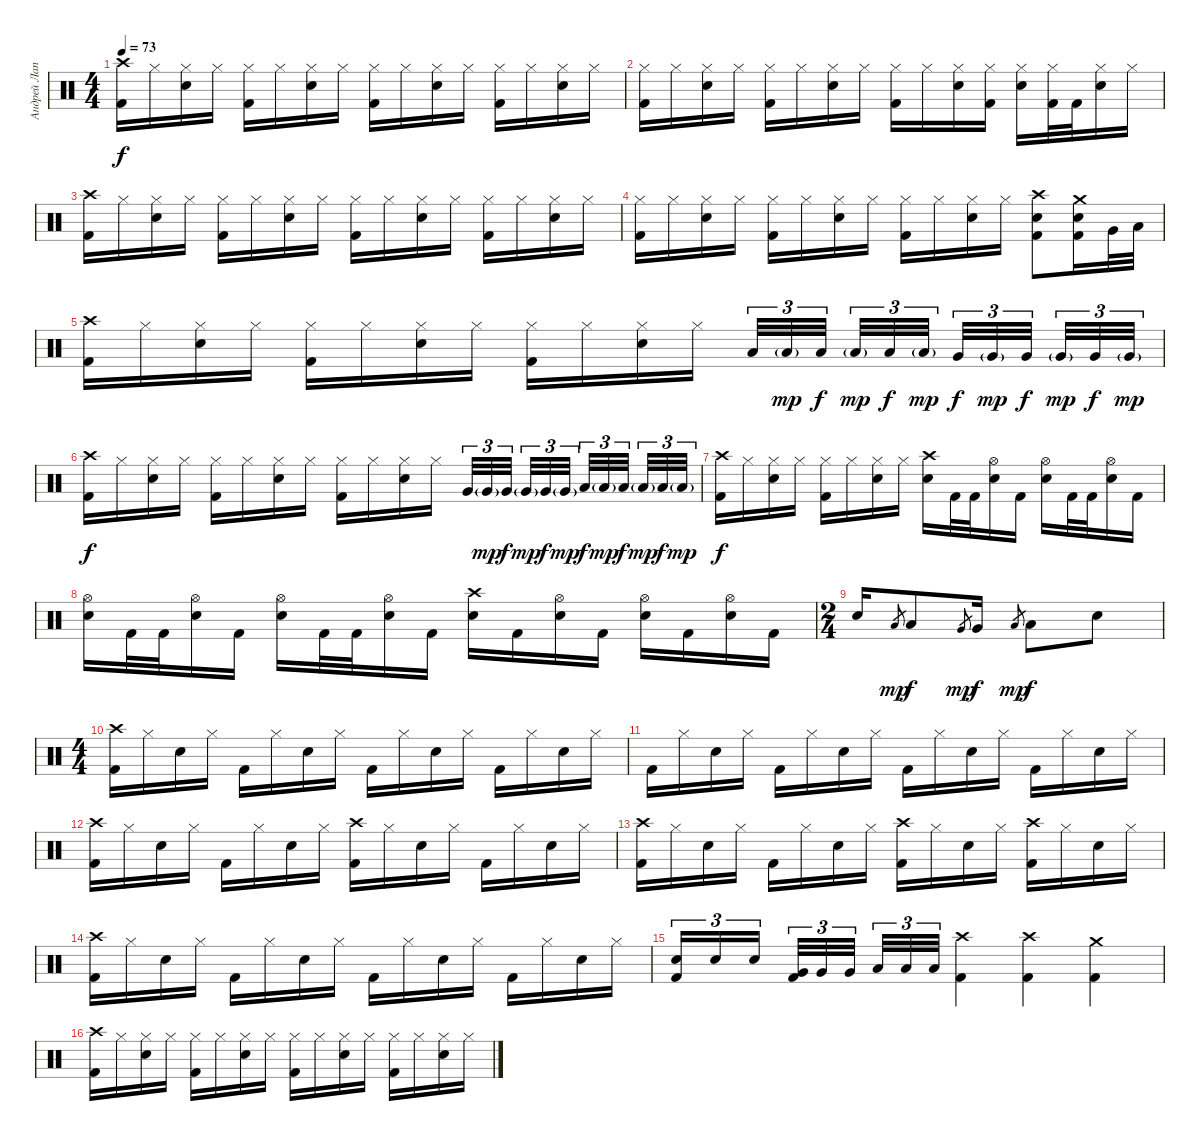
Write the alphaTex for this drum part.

\track ("Андрей Лаптев" "Андрей Лап") {instrument percussion}
\staff {score}
\articulation defaults
\ts (4 4)
\tempo 73
\clef neutral
\ks c
("Crash high (hit)" "Kick (hit) 2").16{dy f} "Hi-Hat (closed)".16 ("Hi-Hat (closed)" "Electric Snare (hit)").16 "Hi-Hat (closed)".16 ("Hi-Hat (closed)" "Kick (hit) 2").16 "Hi-Hat (closed)".16 ("Hi-Hat (closed)" "Electric Snare (hit)").16 "Hi-Hat (closed)".16 ("Hi-Hat (closed)" "Kick (hit) 2").16 "Hi-Hat (closed)".16 ("Hi-Hat (closed)" "Electric Snare (hit)").16 "Hi-Hat (closed)".16 ("Hi-Hat (closed)" "Kick (hit) 2").16 "Hi-Hat (closed)".16 ("Hi-Hat (closed)" "Electric Snare (hit)").16 "Hi-Hat (closed)".16 |
("Hi-Hat (closed)" "Kick (hit) 2").16 "Hi-Hat (closed)".16 ("Hi-Hat (closed)" "Electric Snare (hit)").16 "Hi-Hat (closed)".16 ("Hi-Hat (closed)" "Kick (hit) 2").16 "Hi-Hat (closed)".16 ("Hi-Hat (closed)" "Electric Snare (hit)").16 "Hi-Hat (closed)".16 ("Hi-Hat (closed)" "Kick (hit) 2").16 "Hi-Hat (closed)".16 ("Hi-Hat (closed)" "Electric Snare (hit)").16 ("Hi-Hat (closed)" "Kick (hit) 2").16 ("Hi-Hat (closed)" "Electric Snare (hit)").16 ("Hi-Hat (closed)" "Kick (hit) 2").32 "Kick (hit) 2".32 ("Hi-Hat (closed)" "Electric Snare (hit)").16 "Hi-Hat (closed)".16 |
("Crash high (hit)" "Kick (hit) 2").16 "Hi-Hat (closed)".16 ("Hi-Hat (closed)" "Electric Snare (hit)").16 "Hi-Hat (closed)".16 ("Hi-Hat (closed)" "Kick (hit) 2").16 "Hi-Hat (closed)".16 ("Hi-Hat (closed)" "Electric Snare (hit)").16 "Hi-Hat (closed)".16 ("Hi-Hat (closed)" "Kick (hit) 2").16 "Hi-Hat (closed)".16 ("Hi-Hat (closed)" "Electric Snare (hit)").16 "Hi-Hat (closed)".16 ("Hi-Hat (closed)" "Kick (hit) 2").16 "Hi-Hat (closed)".16 ("Hi-Hat (closed)" "Electric Snare (hit)").16 "Hi-Hat (closed)".16 |
("Hi-Hat (closed)" "Kick (hit) 2").16 "Hi-Hat (closed)".16 ("Hi-Hat (closed)" "Electric Snare (hit)").16 "Hi-Hat (closed)".16 ("Hi-Hat (closed)" "Kick (hit) 2").16 "Hi-Hat (closed)".16 ("Hi-Hat (closed)" "Electric Snare (hit)").16 "Hi-Hat (closed)".16 ("Hi-Hat (closed)" "Kick (hit) 2").16 "Hi-Hat (closed)".16 ("Hi-Hat (closed)" "Electric Snare (hit)").16 "Hi-Hat (closed)".16 ("Crash high (hit)" "Electric Snare (hit)" "Kick (hit) 2").8 ("Crash medium (hit)" "Electric Snare (hit)" "Kick (hit) 2").16 "Very Low Tom (hit)".32 "Low Floor Tom (hit)".32 |
("Crash high (hit)" "Kick (hit) 2").16 "Hi-Hat (closed)".16 ("Hi-Hat (closed)" "Electric Snare (hit)").16 "Hi-Hat (closed)".16 ("Hi-Hat (closed)" "Kick (hit) 2").16 "Hi-Hat (closed)".16 ("Hi-Hat (closed)" "Electric Snare (hit)").16 "Hi-Hat (closed)".16 ("Hi-Hat (closed)" "Kick (hit) 2").16 "Hi-Hat (closed)".16 ("Hi-Hat (closed)" "Electric Snare (hit)").16 "Hi-Hat (closed)".16 "Low Tom (hit)".32{tu (3 2)} "Low Tom (hit)"{g}.32{tu (3 2) dy mp} "Low Tom (hit)".32{tu (3 2) dy f beam splitsecondary} "Low Tom (hit)"{g}.32{tu (3 2) dy mp} "Low Tom (hit)".32{tu (3 2) dy f} "Low Tom (hit)"{g}.32{tu (3 2) dy mp beam splitsecondary} "Very Low Tom (hit)".32{tu (3 2) dy f} "Very Low Tom (hit)"{g}.32{tu (3 2) dy mp} "Very Low Tom (hit)".32{tu (3 2) dy f beam splitsecondary} "Very Low Tom (hit)"{g}.32{tu (3 2) dy mp} "Very Low Tom (hit)".32{tu (3 2) dy f} "Very Low Tom (hit)"{g}.32{tu (3 2) dy mp} |
("Crash high (hit)" "Kick (hit) 2").16{dy f} "Hi-Hat (closed)".16 ("Hi-Hat (closed)" "Electric Snare (hit)").16 "Hi-Hat (closed)".16 ("Hi-Hat (closed)" "Kick (hit) 2").16 "Hi-Hat (closed)".16 ("Hi-Hat (closed)" "Electric Snare (hit)").16 "Hi-Hat (closed)".16 ("Hi-Hat (closed)" "Kick (hit) 2").16 "Hi-Hat (closed)".16 ("Hi-Hat (closed)" "Electric Snare (hit)").16 "Hi-Hat (closed)".16 "Very Low Tom (hit)".32{tu (3 2)} "Very Low Tom (hit)"{g}.32{tu (3 2) dy mp} "Very Low Tom (hit)".32{tu (3 2) dy f beam splitsecondary} "Very Low Tom (hit)"{g}.32{tu (3 2) dy mp} "Very Low Tom (hit)".32{tu (3 2) dy f} "Very Low Tom (hit)"{g}.32{tu (3 2) dy mp beam splitsecondary} "Low Floor Tom (hit)".32{tu (3 2) dy f} "Low Floor Tom (hit)"{g}.32{tu (3 2) dy mp} "Low Floor Tom (hit)".32{tu (3 2) dy f beam splitsecondary} "Low Floor Tom (hit)"{g}.32{tu (3 2) dy mp} "Low Floor Tom (hit)".32{tu (3 2) dy f} "Low Floor Tom (hit)"{g}.32{tu (3 2) dy mp} |
("Crash high (hit)" "Kick (hit) 2").16{dy f} "Hi-Hat (closed)".16 ("Hi-Hat (closed)" "Electric Snare (hit)").16 "Hi-Hat (closed)".16 ("Hi-Hat (closed)" "Kick (hit) 2").16 "Hi-Hat (closed)".16 ("Hi-Hat (closed)" "Electric Snare (hit)").16 "Hi-Hat (closed)".16 ("Crash high (hit)" "Electric Snare (hit)").16 "Kick (hit) 2".32 "Kick (hit) 2".32 ("Hi-Hat (open)" "Electric Snare (hit)").16 "Kick (hit) 2".16 ("Hi-Hat (open)" "Electric Snare (hit)").16 "Kick (hit) 2".32 "Kick (hit) 2".32 ("Hi-Hat (open)" "Electric Snare (hit)").16 "Kick (hit) 2".16 |
("Hi-Hat (open)" "Electric Snare (hit)").16 "Kick (hit) 2".32 "Kick (hit) 2".32 ("Hi-Hat (open)" "Electric Snare (hit)").16 "Kick (hit) 2".16 ("Hi-Hat (open)" "Electric Snare (hit)").16 "Kick (hit) 2".32 "Kick (hit) 2".32 ("Hi-Hat (open)" "Electric Snare (hit)").16 "Kick (hit) 2".16 ("Crash high (hit)" "Electric Snare (hit)").16 "Kick (hit) 2".16 ("Hi-Hat (open)" "Electric Snare (hit)").16 "Kick (hit) 2".16 ("Hi-Hat (open)" "Electric Snare (hit)").16 "Kick (hit) 2".16 ("Hi-Hat (open)" "Electric Snare (hit)").16 "Kick (hit) 2".16 |
\ts (2 4)
"Electric Snare (hit)".16 "Low Tom (hit)".8{gr dy mp} "Low Tom (hit)".8{dy f} "Very Low Tom (hit)".8{gr dy mp} "Very Low Tom (hit)".16{dy f} "Low Floor Tom (hit)".8{gr dy mp} "Low Floor Tom (hit)".8{dy f} "Electric Snare (hit)".8 |
\ts (4 4)
("Crash high (hit)" "Kick (hit) 2").16 "Hi-Hat (closed)".16 "Electric Snare (hit)".16 "Hi-Hat (closed)".16 "Kick (hit) 2".16 "Hi-Hat (closed)".16 "Electric Snare (hit)".16 "Hi-Hat (closed)".16 "Kick (hit) 2".16 "Hi-Hat (closed)".16 "Electric Snare (hit)".16 "Hi-Hat (closed)".16 "Kick (hit) 2".16 "Hi-Hat (closed)".16 "Electric Snare (hit)".16 "Hi-Hat (closed)".16 |
"Kick (hit) 2".16 "Hi-Hat (closed)".16 "Electric Snare (hit)".16 "Hi-Hat (closed)".16 "Kick (hit) 2".16 "Hi-Hat (closed)".16 "Electric Snare (hit)".16 "Hi-Hat (closed)".16 "Kick (hit) 2".16 "Hi-Hat (closed)".16 "Electric Snare (hit)".16 "Hi-Hat (closed)".16 "Kick (hit) 2".16 "Hi-Hat (closed)".16 "Electric Snare (hit)".16 "Hi-Hat (closed)".16 |
("Crash high (hit)" "Kick (hit) 2").16 "Hi-Hat (closed)".16 "Electric Snare (hit)".16 "Hi-Hat (closed)".16 "Kick (hit) 2".16 "Hi-Hat (closed)".16 "Electric Snare (hit)".16 "Hi-Hat (closed)".16 ("Crash high (hit)" "Kick (hit) 2").16 "Hi-Hat (closed)".16 "Electric Snare (hit)".16 "Hi-Hat (closed)".16 "Kick (hit) 2".16 "Hi-Hat (closed)".16 "Electric Snare (hit)".16 "Hi-Hat (closed)".16 |
("Crash high (hit)" "Kick (hit) 2").16 "Hi-Hat (closed)".16 "Electric Snare (hit)".16 "Hi-Hat (closed)".16 "Kick (hit) 2".16 "Hi-Hat (closed)".16 "Electric Snare (hit)".16 "Hi-Hat (closed)".16 ("Crash high (hit)" "Kick (hit) 2").16 "Hi-Hat (closed)".16 "Electric Snare (hit)".16 "Hi-Hat (closed)".16 ("Crash high (hit)" "Kick (hit) 2").16 "Hi-Hat (closed)".16 "Electric Snare (hit)".16 "Hi-Hat (closed)".16 |
("Crash high (hit)" "Kick (hit) 2").16 "Hi-Hat (closed)".16 "Electric Snare (hit)".16 "Hi-Hat (closed)".16 "Kick (hit) 2".16 "Hi-Hat (closed)".16 "Electric Snare (hit)".16 "Hi-Hat (closed)".16 "Kick (hit) 2".16 "Hi-Hat (closed)".16 "Electric Snare (hit)".16 "Hi-Hat (closed)".16 "Kick (hit) 2".16 "Hi-Hat (closed)".16 "Electric Snare (hit)".16 "Hi-Hat (closed)".16 |
("Electric Snare (hit)" "Kick (hit) 2").16{tu (3 2)} "Electric Snare (hit)".16{tu (3 2)} "Electric Snare (hit)".16{tu (3 2) beam splitsecondary} ("Very Low Tom (hit)" "Kick (hit) 2").32{tu (3 2)} "Very Low Tom (hit)".32{tu (3 2)} "Very Low Tom (hit)".32{tu (3 2) beam splitsecondary} "Low Floor Tom (hit)".32{tu (3 2)} "Low Floor Tom (hit)".32{tu (3 2)} "Low Floor Tom (hit)".32{tu (3 2)} ("Crash high (hit)" "Kick (hit) 2").4 ("Crash high (hit)" "Kick (hit) 2").4 ("Crash medium (hit)" "Kick (hit) 2").4 |
("Crash high (hit)" "Kick (hit) 2").16 "Hi-Hat (closed)".16 ("Hi-Hat (closed)" "Electric Snare (hit)").16 "Hi-Hat (closed)".16 ("Hi-Hat (closed)" "Kick (hit) 2").16 "Hi-Hat (closed)".16 ("Hi-Hat (closed)" "Electric Snare (hit)").16 "Hi-Hat (closed)".16 ("Hi-Hat (closed)" "Kick (hit) 2").16 "Hi-Hat (closed)".16 ("Hi-Hat (closed)" "Electric Snare (hit)").16 "Hi-Hat (closed)".16 ("Hi-Hat (closed)" "Kick (hit) 2").16 "Hi-Hat (closed)".16 ("Hi-Hat (closed)" "Electric Snare (hit)").16 "Hi-Hat (closed)".16
